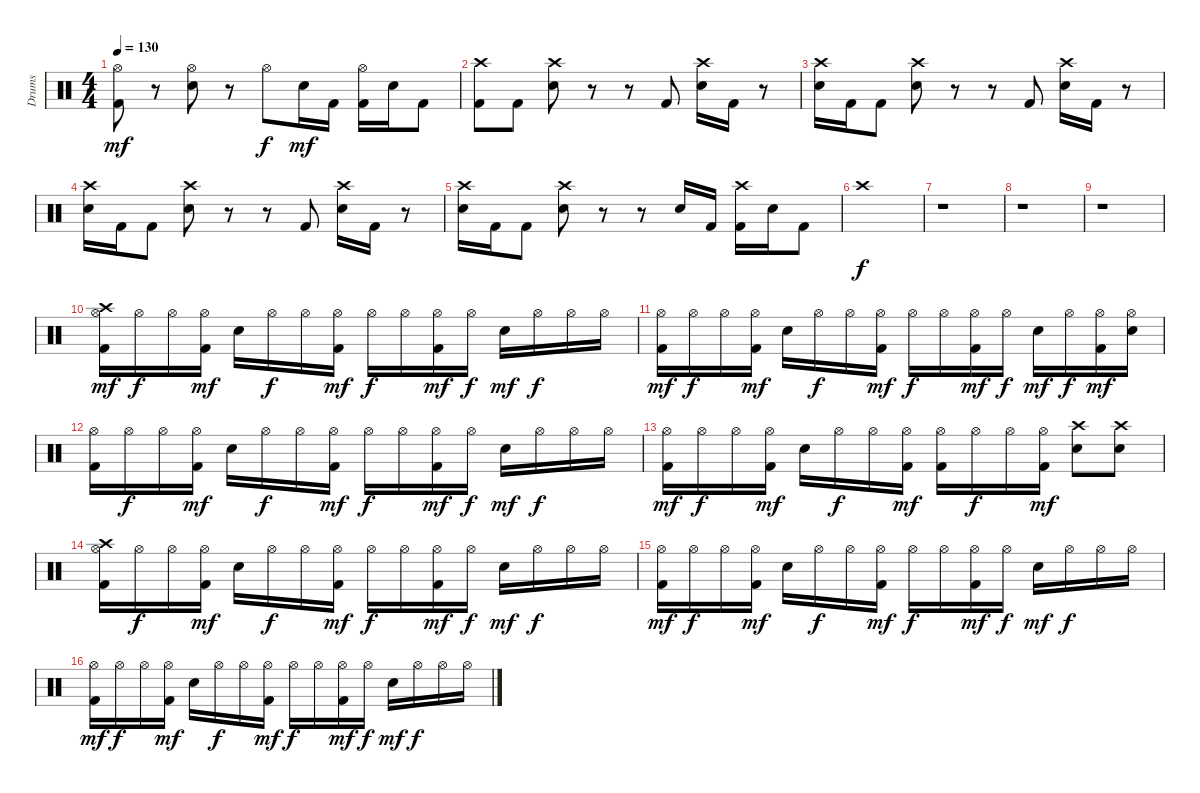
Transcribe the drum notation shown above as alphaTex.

\track ("Drums" "Drums") {instrument percussion}
\staff {score}
\articulation defaults
\ts (4 4)
\tempo 130
\clef neutral
\ks c
("Hi-Hat (open)" "Kick (hit) 2").8{dy mf} r.8 ("Hi-Hat (open)" "Electric Snare (hit)").8 r.8 "Hi-Hat (open)".8{dy f} "Electric Snare (hit)".16{dy mf} "Kick (hit) 2".16 ("Hi-Hat (open)" "Kick (hit) 2").16 "Electric Snare (hit)".16 "Kick (hit) 2".8 |
("Crash high (hit)" "Kick (hit) 2").8 "Kick (hit) 2".8 ("Crash high (hit)" "Electric Snare (hit)").8 r.8 r.8 "Kick (hit) 2".8 ("Crash high (hit)" "Electric Snare (hit)").16 "Kick (hit) 2".16 r.8 |
("Crash high (hit)" "Electric Snare (hit)").16 "Kick (hit) 2".16 "Kick (hit) 2".8 ("Crash high (hit)" "Electric Snare (hit)").8 r.8 r.8 "Kick (hit) 2".8 ("Crash high (hit)" "Electric Snare (hit)").16 "Kick (hit) 2".16 r.8 |
("Crash high (hit)" "Electric Snare (hit)").16 "Kick (hit) 2".16 "Kick (hit) 2".8 ("Crash high (hit)" "Electric Snare (hit)").8 r.8 r.8 "Kick (hit) 2".8 ("Crash high (hit)" "Electric Snare (hit)").16 "Kick (hit) 2".16 r.8 |
("Crash high (hit)" "Electric Snare (hit)").16 "Kick (hit) 2".16 "Kick (hit) 2".8 ("Crash high (hit)" "Electric Snare (hit)").8 r.8 r.8 "Electric Snare (hit)".16 "Kick (hit) 2".16 ("Crash high (hit)" "Kick (hit) 2").16 "Electric Snare (hit)".16 "Kick (hit) 2".8 |
"Crash high (hit)".1{dy f} |
r.1 |
r.1 |
r.1 |
("Crash high (hit)" "Hi-Hat (open)" "Kick (hit) 2").16{dy mf} "Hi-Hat (open)".16{dy f} "Hi-Hat (open)".16 ("Hi-Hat (open)" "Kick (hit) 2").16{dy mf} "Electric Snare (hit)".16 "Hi-Hat (open)".16{dy f} "Hi-Hat (open)".16 ("Hi-Hat (open)" "Kick (hit) 2").16{dy mf} "Hi-Hat (open)".16{dy f} "Hi-Hat (open)".16 ("Hi-Hat (open)" "Kick (hit) 2").16{dy mf} "Hi-Hat (open)".16{dy f} "Electric Snare (hit)".16{dy mf} "Hi-Hat (open)".16{dy f} "Hi-Hat (open)".16 "Hi-Hat (open)".16 |
("Hi-Hat (open)" "Kick (hit) 2").16{dy mf} "Hi-Hat (open)".16{dy f} "Hi-Hat (open)".16 ("Hi-Hat (open)" "Kick (hit) 2").16{dy mf} "Electric Snare (hit)".16 "Hi-Hat (open)".16{dy f} "Hi-Hat (open)".16 ("Hi-Hat (open)" "Kick (hit) 2").16{dy mf} "Hi-Hat (open)".16{dy f} "Hi-Hat (open)".16 ("Hi-Hat (open)" "Kick (hit) 2").16{dy mf} "Hi-Hat (open)".16{dy f} "Electric Snare (hit)".16{dy mf} "Hi-Hat (open)".16{dy f} ("Hi-Hat (open)" "Kick (hit) 2").16{dy mf} ("Hi-Hat (open)" "Electric Snare (hit)").16 |
("Hi-Hat (open)" "Kick (hit) 2").16 "Hi-Hat (open)".16{dy f} "Hi-Hat (open)".16 ("Hi-Hat (open)" "Kick (hit) 2").16{dy mf} "Electric Snare (hit)".16 "Hi-Hat (open)".16{dy f} "Hi-Hat (open)".16 ("Hi-Hat (open)" "Kick (hit) 2").16{dy mf} "Hi-Hat (open)".16{dy f} "Hi-Hat (open)".16 ("Hi-Hat (open)" "Kick (hit) 2").16{dy mf} "Hi-Hat (open)".16{dy f} "Electric Snare (hit)".16{dy mf} "Hi-Hat (open)".16{dy f} "Hi-Hat (open)".16 "Hi-Hat (open)".16 |
("Hi-Hat (open)" "Kick (hit) 2").16{dy mf} "Hi-Hat (open)".16{dy f} "Hi-Hat (open)".16 ("Hi-Hat (open)" "Kick (hit) 2").16{dy mf} "Electric Snare (hit)".16 "Hi-Hat (open)".16{dy f} "Hi-Hat (open)".16 ("Hi-Hat (open)" "Kick (hit) 2").16{dy mf} ("Hi-Hat (open)" "Kick (hit) 2").16 "Hi-Hat (open)".16{dy f} "Hi-Hat (open)".16 ("Hi-Hat (open)" "Kick (hit) 2").16{dy mf} ("Crash high (hit)" "Electric Snare (hit)").8 ("Crash high (hit)" "Electric Snare (hit)").8 |
("Crash high (hit)" "Hi-Hat (open)" "Kick (hit) 2").16 "Hi-Hat (open)".16{dy f} "Hi-Hat (open)".16 ("Hi-Hat (open)" "Kick (hit) 2").16{dy mf} "Electric Snare (hit)".16 "Hi-Hat (open)".16{dy f} "Hi-Hat (open)".16 ("Hi-Hat (open)" "Kick (hit) 2").16{dy mf} "Hi-Hat (open)".16{dy f} "Hi-Hat (open)".16 ("Hi-Hat (open)" "Kick (hit) 2").16{dy mf} "Hi-Hat (open)".16{dy f} "Electric Snare (hit)".16{dy mf} "Hi-Hat (open)".16{dy f} "Hi-Hat (open)".16 "Hi-Hat (open)".16 |
("Hi-Hat (open)" "Kick (hit) 2").16{dy mf} "Hi-Hat (open)".16{dy f} "Hi-Hat (open)".16 ("Hi-Hat (open)" "Kick (hit) 2").16{dy mf} "Electric Snare (hit)".16 "Hi-Hat (open)".16{dy f} "Hi-Hat (open)".16 ("Hi-Hat (open)" "Kick (hit) 2").16{dy mf} "Hi-Hat (open)".16{dy f} "Hi-Hat (open)".16 ("Hi-Hat (open)" "Kick (hit) 2").16{dy mf} "Hi-Hat (open)".16{dy f} "Electric Snare (hit)".16{dy mf} "Hi-Hat (open)".16{dy f} "Hi-Hat (open)".16 "Hi-Hat (open)".16 |
("Hi-Hat (open)" "Kick (hit) 2").16{dy mf} "Hi-Hat (open)".16{dy f} "Hi-Hat (open)".16 ("Hi-Hat (open)" "Kick (hit) 2").16{dy mf} "Electric Snare (hit)".16 "Hi-Hat (open)".16{dy f} "Hi-Hat (open)".16 ("Hi-Hat (open)" "Kick (hit) 2").16{dy mf} "Hi-Hat (open)".16{dy f} "Hi-Hat (open)".16 ("Hi-Hat (open)" "Kick (hit) 2").16{dy mf} "Hi-Hat (open)".16{dy f} "Electric Snare (hit)".16{dy mf} "Hi-Hat (open)".16{dy f} "Hi-Hat (open)".16 "Hi-Hat (open)".16
